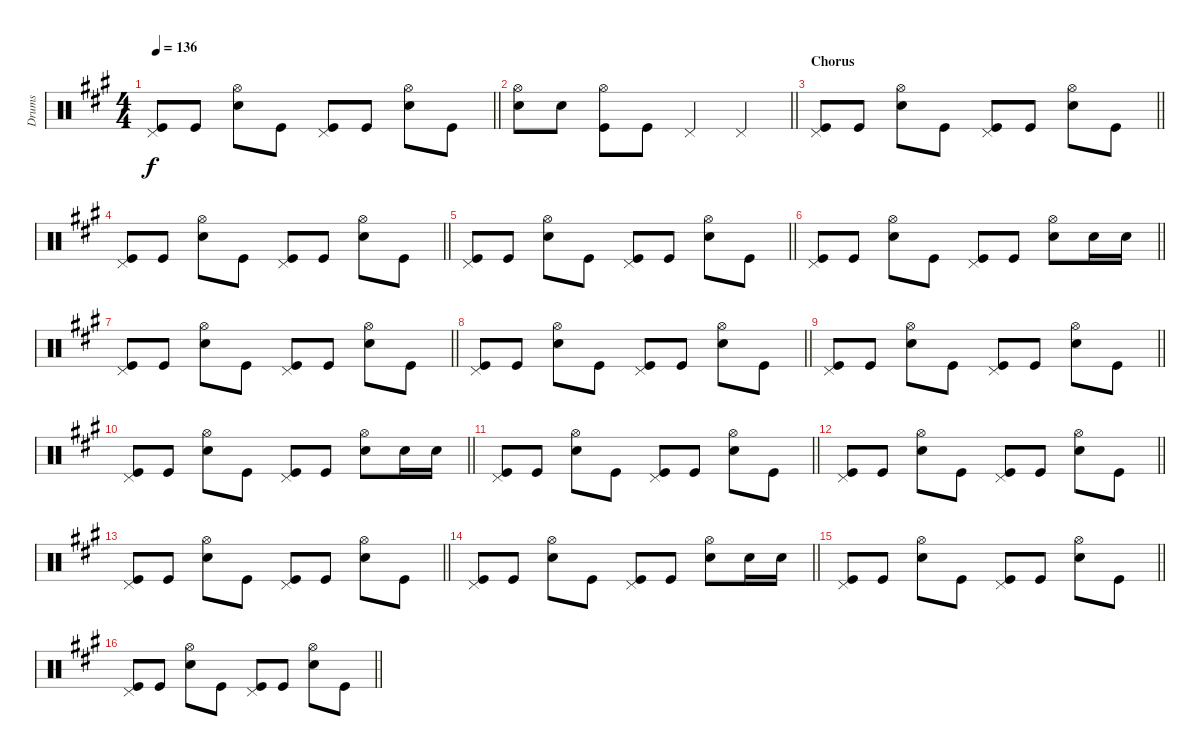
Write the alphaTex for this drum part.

\track ("Drums" "Drums") {instrument percussion}
\staff {score}
\articulation defaults
\ts (4 4)
\tempo 136
\clef neutral
\barLineRight lightlight
\ks a
("Pedal Hi-Hat (hit)" "Kick (hit)").8{dy f} "Kick (hit)".8 ("Hi-Hat (open)" "Snare (hit) 2").8 "Kick (hit)".8 ("Pedal Hi-Hat (hit)" "Kick (hit)").8 "Kick (hit)".8 ("Hi-Hat (open)" "Snare (hit) 2").8 "Kick (hit)".8 |
\barLineRight lightlight
("Hi-Hat (open)" "Snare (hit) 2").8 "Snare (hit) 2".8 ("Hi-Hat (open)" "Kick (hit)").8 "Kick (hit)".8 "Pedal Hi-Hat (hit)".4 "Pedal Hi-Hat (hit)".4 |
\section ("" "Chorus")
\barLineRight lightlight
("Pedal Hi-Hat (hit)" "Kick (hit)").8 "Kick (hit)".8 ("Hi-Hat (open)" "Snare (hit) 2").8 "Kick (hit)".8 ("Pedal Hi-Hat (hit)" "Kick (hit)").8 "Kick (hit)".8 ("Hi-Hat (open)" "Snare (hit) 2").8 "Kick (hit)".8 |
\barLineRight lightlight
("Pedal Hi-Hat (hit)" "Kick (hit)").8 "Kick (hit)".8 ("Hi-Hat (open)" "Snare (hit) 2").8 "Kick (hit)".8 ("Pedal Hi-Hat (hit)" "Kick (hit)").8 "Kick (hit)".8 ("Hi-Hat (open)" "Snare (hit) 2").8 "Kick (hit)".8 |
\barLineRight lightlight
("Pedal Hi-Hat (hit)" "Kick (hit)").8 "Kick (hit)".8 ("Hi-Hat (open)" "Snare (hit) 2").8 "Kick (hit)".8 ("Pedal Hi-Hat (hit)" "Kick (hit)").8 "Kick (hit)".8 ("Hi-Hat (open)" "Snare (hit) 2").8 "Kick (hit)".8 |
\barLineRight lightlight
("Pedal Hi-Hat (hit)" "Kick (hit)").8 "Kick (hit)".8 ("Hi-Hat (open)" "Snare (hit) 2").8 "Kick (hit)".8 ("Pedal Hi-Hat (hit)" "Kick (hit)").8 "Kick (hit)".8 ("Hi-Hat (open)" "Snare (hit) 2").8 "Snare (hit) 2".16 "Snare (hit) 2".16 |
\barLineRight lightlight
("Pedal Hi-Hat (hit)" "Kick (hit)").8 "Kick (hit)".8 ("Hi-Hat (open)" "Snare (hit) 2").8 "Kick (hit)".8 ("Pedal Hi-Hat (hit)" "Kick (hit)").8 "Kick (hit)".8 ("Hi-Hat (open)" "Snare (hit) 2").8 "Kick (hit)".8 |
\barLineRight lightlight
("Pedal Hi-Hat (hit)" "Kick (hit)").8 "Kick (hit)".8 ("Hi-Hat (open)" "Snare (hit) 2").8 "Kick (hit)".8 ("Pedal Hi-Hat (hit)" "Kick (hit)").8 "Kick (hit)".8 ("Hi-Hat (open)" "Snare (hit) 2").8 "Kick (hit)".8 |
\barLineRight lightlight
("Pedal Hi-Hat (hit)" "Kick (hit)").8 "Kick (hit)".8 ("Hi-Hat (open)" "Snare (hit) 2").8 "Kick (hit)".8 ("Pedal Hi-Hat (hit)" "Kick (hit)").8 "Kick (hit)".8 ("Hi-Hat (open)" "Snare (hit) 2").8 "Kick (hit)".8 |
\barLineRight lightlight
("Pedal Hi-Hat (hit)" "Kick (hit)").8 "Kick (hit)".8 ("Hi-Hat (open)" "Snare (hit) 2").8 "Kick (hit)".8 ("Pedal Hi-Hat (hit)" "Kick (hit)").8 "Kick (hit)".8 ("Hi-Hat (open)" "Snare (hit) 2").8 "Snare (hit) 2".16 "Snare (hit) 2".16 |
\barLineRight lightlight
("Pedal Hi-Hat (hit)" "Kick (hit)").8 "Kick (hit)".8 ("Hi-Hat (open)" "Snare (hit) 2").8 "Kick (hit)".8 ("Pedal Hi-Hat (hit)" "Kick (hit)").8 "Kick (hit)".8 ("Hi-Hat (open)" "Snare (hit) 2").8 "Kick (hit)".8 |
\barLineRight lightlight
("Pedal Hi-Hat (hit)" "Kick (hit)").8 "Kick (hit)".8 ("Hi-Hat (open)" "Snare (hit) 2").8 "Kick (hit)".8 ("Pedal Hi-Hat (hit)" "Kick (hit)").8 "Kick (hit)".8 ("Hi-Hat (open)" "Snare (hit) 2").8 "Kick (hit)".8 |
\barLineRight lightlight
("Pedal Hi-Hat (hit)" "Kick (hit)").8 "Kick (hit)".8 ("Hi-Hat (open)" "Snare (hit) 2").8 "Kick (hit)".8 ("Pedal Hi-Hat (hit)" "Kick (hit)").8 "Kick (hit)".8 ("Hi-Hat (open)" "Snare (hit) 2").8 "Kick (hit)".8 |
\barLineRight lightlight
("Pedal Hi-Hat (hit)" "Kick (hit)").8 "Kick (hit)".8 ("Hi-Hat (open)" "Snare (hit) 2").8 "Kick (hit)".8 ("Pedal Hi-Hat (hit)" "Kick (hit)").8 "Kick (hit)".8 ("Hi-Hat (open)" "Snare (hit) 2").8 "Snare (hit) 2".16 "Snare (hit) 2".16 |
\barLineRight lightlight
("Pedal Hi-Hat (hit)" "Kick (hit)").8 "Kick (hit)".8 ("Hi-Hat (open)" "Snare (hit) 2").8 "Kick (hit)".8 ("Pedal Hi-Hat (hit)" "Kick (hit)").8 "Kick (hit)".8 ("Hi-Hat (open)" "Snare (hit) 2").8 "Kick (hit)".8 |
\barLineRight lightlight
("Pedal Hi-Hat (hit)" "Kick (hit)").8 "Kick (hit)".8 ("Hi-Hat (open)" "Snare (hit) 2").8 "Kick (hit)".8 ("Pedal Hi-Hat (hit)" "Kick (hit)").8 "Kick (hit)".8 ("Hi-Hat (open)" "Snare (hit) 2").8 "Kick (hit)".8
